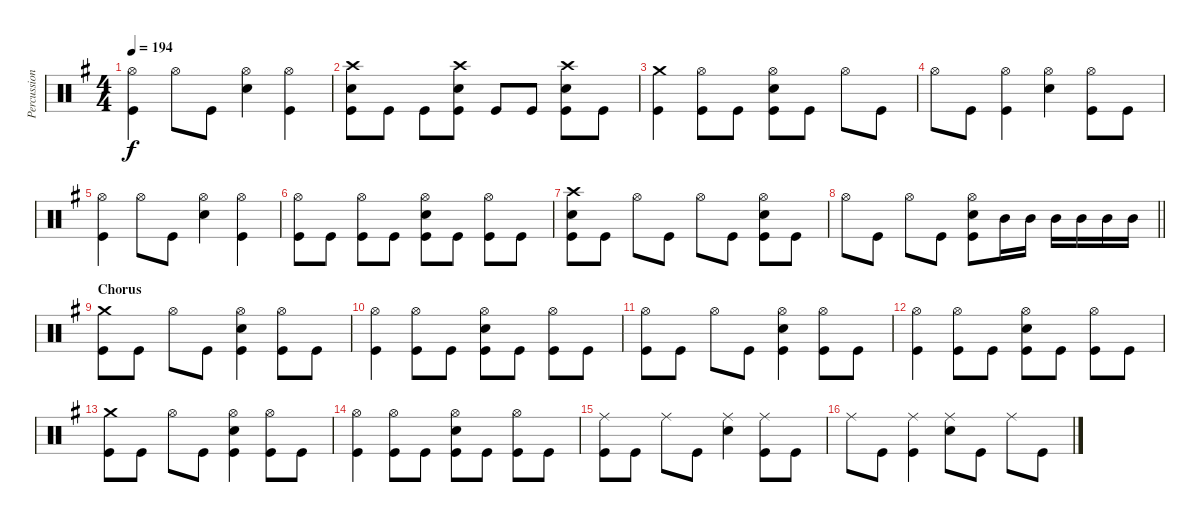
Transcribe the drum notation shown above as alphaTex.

\track ("Percussion" "Percussion") {instrument percussion}
\staff {score}
\articulation defaults
\ts (4 4)
\tempo 194
\clef neutral
\ks g
("Hi-Hat (open)" "Kick (hit)").4{dy f} "Hi-Hat (open)".8 "Kick (hit)".8 ("Hi-Hat (open)" "Electric Snare (hit)").4 ("Hi-Hat (open)" "Kick (hit)").4 |
("Crash high (hit)" "Electric Snare (hit)" "Kick (hit)").8 "Kick (hit)".8 "Kick (hit)".8 ("Crash high (hit)" "Electric Snare (hit)" "Kick (hit)").8 "Kick (hit)".8 "Kick (hit)".8 ("Crash high (hit)" "Electric Snare (hit)" "Kick (hit)").8 "Kick (hit)".8 |
("Crash medium (hit)" "Kick (hit)").4 ("Hi-Hat (open)" "Kick (hit)").8 "Kick (hit)".8 ("Hi-Hat (open)" "Electric Snare (hit)" "Kick (hit)").8 "Kick (hit)".8 "Hi-Hat (open)".8 "Kick (hit)".8 |
"Hi-Hat (open)".8 "Kick (hit)".8 ("Hi-Hat (open)" "Kick (hit)").4 ("Hi-Hat (open)" "Electric Snare (hit)").4 ("Hi-Hat (open)" "Kick (hit)").8 "Kick (hit)".8 |
("Hi-Hat (open)" "Kick (hit)").4 "Hi-Hat (open)".8 "Kick (hit)".8 ("Hi-Hat (open)" "Electric Snare (hit)").4 ("Hi-Hat (open)" "Kick (hit)").4 |
("Hi-Hat (open)" "Kick (hit)").8 "Kick (hit)".8 ("Hi-Hat (open)" "Kick (hit)").8 "Kick (hit)".8 ("Hi-Hat (open)" "Electric Snare (hit)" "Kick (hit)").8 "Kick (hit)".8 ("Hi-Hat (open)" "Kick (hit)").8 "Kick (hit)".8 |
("Crash high (hit)" "Electric Snare (hit)" "Kick (hit)").8 "Kick (hit)".8 "Hi-Hat (open)".8 "Kick (hit)".8 "Hi-Hat (open)".8 "Kick (hit)".8 ("Hi-Hat (open)" "Electric Snare (hit)" "Kick (hit)").8 "Kick (hit)".8 |
\barLineRight lightlight "Hi-Hat (open)".8 "Kick (hit)".8 "Hi-Hat (open)".8 "Kick (hit)".8
("Hi-Hat (open)" "Electric Snare (hit)" "Kick (hit)").8 "Mid Tom (hit)".16 "Mid Tom (hit)".16 "Mid Tom (hit)".16 "Mid Tom (hit)".16 "Mid Tom (hit)".16 "Mid Tom (hit)".16 |
\section ("" "Chorus")
("Crash medium (hit)" "Kick (hit)").8 "Kick (hit)".8 "Hi-Hat (open)".8 "Kick (hit)".8 ("Hi-Hat (open)" "Electric Snare (hit)" "Kick (hit)").4 ("Hi-Hat (open)" "Kick (hit)").8 "Kick (hit)".8 |
("Hi-Hat (open)" "Kick (hit)").4 ("Hi-Hat (open)" "Kick (hit)").8 "Kick (hit)".8 ("Hi-Hat (open)" "Electric Snare (hit)" "Kick (hit)").8 "Kick (hit)".8 ("Hi-Hat (open)" "Kick (hit)").8 "Kick (hit)".8 |
("Hi-Hat (open)" "Kick (hit)").8 "Kick (hit)".8 "Hi-Hat (open)".8 "Kick (hit)".8 ("Hi-Hat (open)" "Electric Snare (hit)" "Kick (hit)").4 ("Hi-Hat (open)" "Kick (hit)").8 "Kick (hit)".8 |
("Hi-Hat (open)" "Kick (hit)").4 ("Hi-Hat (open)" "Kick (hit)").8 "Kick (hit)".8 ("Hi-Hat (open)" "Electric Snare (hit)" "Kick (hit)").8 "Kick (hit)".8 ("Hi-Hat (open)" "Kick (hit)").8 "Kick (hit)".8 |
("Crash medium (hit)" "Kick (hit)").8 "Kick (hit)".8 "Hi-Hat (open)".8 "Kick (hit)".8 ("Hi-Hat (open)" "Electric Snare (hit)" "Kick (hit)").4 ("Hi-Hat (open)" "Kick (hit)").8 "Kick (hit)".8 |
("Hi-Hat (open)" "Kick (hit)").4 ("Hi-Hat (open)" "Kick (hit)").8 "Kick (hit)".8 ("Hi-Hat (open)" "Electric Snare (hit)" "Kick (hit)").8 "Kick (hit)".8 ("Hi-Hat (open)" "Kick (hit)").8 "Kick (hit)".8 |
("Ride (middle)" "Kick (hit)").8 "Kick (hit)".8 "Ride (middle)".8 "Kick (hit)".8 ("Ride (middle)" "Electric Snare (hit)").4 ("Ride (middle)" "Kick (hit)").8 "Kick (hit)".8 |
"Ride (middle)".8 "Kick (hit)".8 ("Ride (middle)" "Kick (hit)").4 ("Ride (middle)" "Electric Snare (hit)").8 "Kick (hit)".8 "Ride (middle)".8 "Kick (hit)".8
